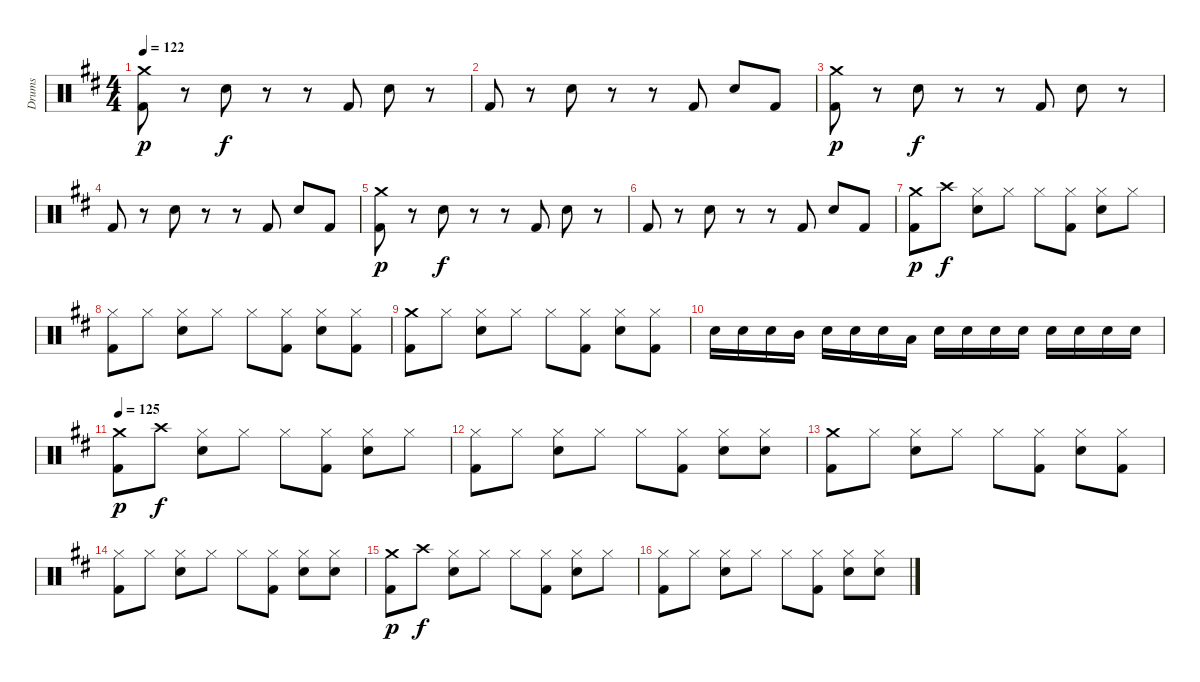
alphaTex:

\track ("Drums" "Drums") {instrument percussion}
\staff {score}
\articulation defaults
\ts (4 4)
\tempo 122
\clef neutral
\ks d
("Crash medium (hit)" "Kick (hit) 2").8{dy p} r.8 "Snare (hit) 2".8{dy f} r.8 r.8 "Kick (hit) 2".8 "Snare (hit) 2".8 r.8 |
"Kick (hit) 2".8 r.8 "Snare (hit) 2".8 r.8 r.8 "Kick (hit) 2".8 "Snare (hit) 2".8 "Kick (hit) 2".8 |
("Crash medium (hit)" "Kick (hit) 2").8{dy p} r.8 "Snare (hit) 2".8{dy f} r.8 r.8 "Kick (hit) 2".8 "Snare (hit) 2".8 r.8 |
"Kick (hit) 2".8 r.8 "Snare (hit) 2".8 r.8 r.8 "Kick (hit) 2".8 "Snare (hit) 2".8 "Kick (hit) 2".8 |
("Crash medium (hit)" "Kick (hit) 2").8{dy p} r.8 "Snare (hit) 2".8{dy f} r.8 r.8 "Kick (hit) 2".8 "Snare (hit) 2".8 r.8 |
"Kick (hit) 2".8 r.8 "Snare (hit) 2".8 r.8 r.8 "Kick (hit) 2".8 "Snare (hit) 2".8 "Kick (hit) 2".8 |
("Crash medium (hit)" "Kick (hit) 2").8{dy p} "Crash high (hit)".8{dy f} ("Hi-Hat (closed)" "Snare (hit) 2").8 "Hi-Hat (closed)".8 "Hi-Hat (closed)".8 ("Hi-Hat (closed)" "Kick (hit) 2").8 ("Hi-Hat (closed)" "Snare (hit) 2").8 "Hi-Hat (closed)".8 |
("Hi-Hat (closed)" "Kick (hit) 2").8 "Hi-Hat (closed)".8 ("Hi-Hat (closed)" "Snare (hit) 2").8 "Hi-Hat (closed)".8 "Hi-Hat (closed)".8 ("Hi-Hat (closed)" "Kick (hit) 2").8 ("Hi-Hat (closed)" "Snare (hit) 2").8 ("Hi-Hat (closed)" "Kick (hit) 2").8 |
("Crash medium (hit)" "Kick (hit) 2").8 "Hi-Hat (closed)".8 ("Hi-Hat (closed)" "Snare (hit) 2").8 "Hi-Hat (closed)".8 "Hi-Hat (closed)".8 ("Hi-Hat (closed)" "Kick (hit) 2").8 ("Hi-Hat (closed)" "Snare (hit) 2").8 ("Hi-Hat (closed)" "Kick (hit) 2").8 |
"Snare (hit) 2".16 "Snare (hit) 2".16 "Snare (hit) 2".16 "Mid Tom (hit)".16 "Snare (hit) 2".16 "Snare (hit) 2".16 "Snare (hit) 2".16 "Low Tom (hit)".16 "Snare (hit) 2".16 "Snare (hit) 2".16 "Snare (hit) 2".16 "Snare (hit) 2".16 "Snare (hit) 2".16 "Snare (hit) 2".16 "Snare (hit) 2".16 "Snare (hit) 2".16 |
\tempo 125
("Crash medium (hit)" "Kick (hit) 2").8{dy p} "Crash high (hit)".8{dy f} ("Hi-Hat (closed)" "Snare (hit) 2").8 "Hi-Hat (closed)".8 "Hi-Hat (closed)".8 ("Hi-Hat (closed)" "Kick (hit) 2").8 ("Hi-Hat (closed)" "Snare (hit) 2").8 "Hi-Hat (closed)".8 |
("Hi-Hat (closed)" "Kick (hit) 2").8 "Hi-Hat (closed)".8 ("Hi-Hat (closed)" "Snare (hit) 2").8 "Hi-Hat (closed)".8 "Hi-Hat (closed)".8 ("Hi-Hat (closed)" "Kick (hit) 2").8 ("Hi-Hat (closed)" "Snare (hit) 2").8 ("Hi-Hat (closed)" "Snare (hit) 2").8 |
("Crash medium (hit)" "Kick (hit) 2").8 "Hi-Hat (closed)".8 ("Hi-Hat (closed)" "Snare (hit) 2").8 "Hi-Hat (closed)".8 "Hi-Hat (closed)".8 ("Hi-Hat (closed)" "Kick (hit) 2").8 ("Hi-Hat (closed)" "Snare (hit) 2").8 ("Hi-Hat (closed)" "Kick (hit) 2").8 |
("Hi-Hat (closed)" "Kick (hit) 2").8 "Hi-Hat (closed)".8 ("Hi-Hat (closed)" "Snare (hit) 2").8 "Hi-Hat (closed)".8 "Hi-Hat (closed)".8 ("Hi-Hat (closed)" "Kick (hit) 2").8 ("Hi-Hat (closed)" "Snare (hit) 2").8 ("Hi-Hat (closed)" "Snare (hit) 2").8 |
("Crash medium (hit)" "Kick (hit) 2").8{dy p} "Crash high (hit)".8{dy f} ("Hi-Hat (closed)" "Snare (hit) 2").8 "Hi-Hat (closed)".8 "Hi-Hat (closed)".8 ("Hi-Hat (closed)" "Kick (hit) 2").8 ("Hi-Hat (closed)" "Snare (hit) 2").8 "Hi-Hat (closed)".8 |
("Hi-Hat (closed)" "Kick (hit) 2").8 "Hi-Hat (closed)".8 ("Hi-Hat (closed)" "Snare (hit) 2").8 "Hi-Hat (closed)".8 "Hi-Hat (closed)".8 ("Hi-Hat (closed)" "Kick (hit) 2").8 ("Hi-Hat (closed)" "Snare (hit) 2").8 ("Hi-Hat (closed)" "Snare (hit) 2").8
